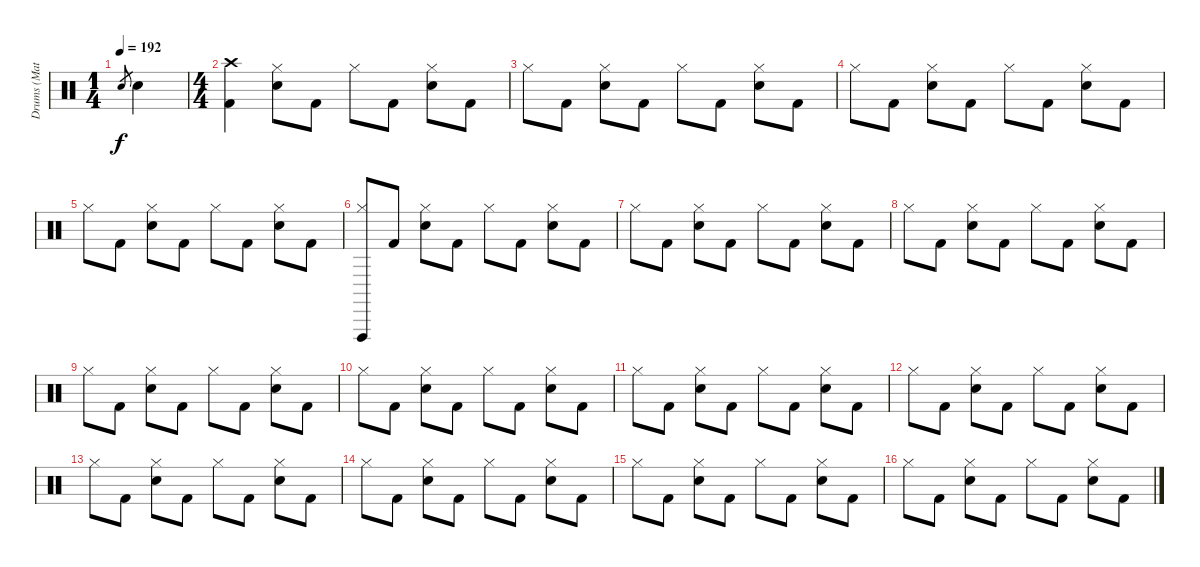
\track ("Drums (Matt)" "Drums (Mat") {instrument percussion}
\staff {score}
\articulation defaults
\ts (1 4)
\tempo 192
\clef neutral
\ks c "Snare (hit) 2".8{gr dy f} "Snare (hit) 2".4
|
\ts (4 4)
("Crash high (hit)" "Kick (hit) 2").4 ("Hi-Hat (closed)" "Snare (hit) 2").8 "Kick (hit) 2".8 "Hi-Hat (closed)".8 "Kick (hit) 2".8 ("Hi-Hat (closed)" "Snare (hit) 2").8 "Kick (hit) 2".8 |
"Hi-Hat (closed)".8 "Kick (hit) 2".8 ("Hi-Hat (closed)" "Snare (hit) 2").8 "Kick (hit) 2".8 "Hi-Hat (closed)".8 "Kick (hit) 2".8 ("Hi-Hat (closed)" "Snare (hit) 2").8 "Kick (hit) 2".8 |
"Hi-Hat (closed)".8 "Kick (hit) 2".8 ("Hi-Hat (closed)" "Snare (hit) 2").8 "Kick (hit) 2".8 "Hi-Hat (closed)".8 "Kick (hit) 2".8 ("Hi-Hat (closed)" "Snare (hit) 2").8 "Kick (hit) 2".8 |
"Hi-Hat (closed)".8 "Kick (hit) 2".8 ("Hi-Hat (closed)" "Snare (hit) 2").8 "Kick (hit) 2".8 "Hi-Hat (closed)".8 "Kick (hit) 2".8 ("Hi-Hat (closed)" "Snare (hit) 2").8 "Kick (hit) 2".8 |
("Vibraslap (hit)" "Hi-Hat (closed)").8 "Kick (hit) 2".8 ("Hi-Hat (closed)" "Snare (hit) 2").8 "Kick (hit) 2".8 "Hi-Hat (closed)".8 "Kick (hit) 2".8 ("Hi-Hat (closed)" "Snare (hit) 2").8 "Kick (hit) 2".8 |
"Hi-Hat (closed)".8 "Kick (hit) 2".8 ("Hi-Hat (closed)" "Snare (hit) 2").8 "Kick (hit) 2".8 "Hi-Hat (closed)".8 "Kick (hit) 2".8 ("Hi-Hat (closed)" "Snare (hit) 2").8 "Kick (hit) 2".8 |
"Hi-Hat (closed)".8 "Kick (hit) 2".8 ("Hi-Hat (closed)" "Snare (hit) 2").8 "Kick (hit) 2".8 "Hi-Hat (closed)".8 "Kick (hit) 2".8 ("Hi-Hat (closed)" "Snare (hit) 2").8 "Kick (hit) 2".8 |
"Hi-Hat (closed)".8 "Kick (hit) 2".8 ("Hi-Hat (closed)" "Snare (hit) 2").8 "Kick (hit) 2".8 "Hi-Hat (closed)".8 "Kick (hit) 2".8 ("Hi-Hat (closed)" "Snare (hit) 2").8 "Kick (hit) 2".8 |
"Hi-Hat (closed)".8 "Kick (hit) 2".8 ("Hi-Hat (closed)" "Snare (hit) 2").8 "Kick (hit) 2".8 "Hi-Hat (closed)".8 "Kick (hit) 2".8 ("Hi-Hat (closed)" "Snare (hit) 2").8 "Kick (hit) 2".8 |
"Hi-Hat (closed)".8 "Kick (hit) 2".8 ("Hi-Hat (closed)" "Snare (hit) 2").8 "Kick (hit) 2".8 "Hi-Hat (closed)".8 "Kick (hit) 2".8 ("Hi-Hat (closed)" "Snare (hit) 2").8 "Kick (hit) 2".8 |
"Hi-Hat (closed)".8 "Kick (hit) 2".8 ("Hi-Hat (closed)" "Snare (hit) 2").8 "Kick (hit) 2".8 "Hi-Hat (closed)".8 "Kick (hit) 2".8 ("Hi-Hat (closed)" "Snare (hit) 2").8 "Kick (hit) 2".8 |
"Hi-Hat (closed)".8 "Kick (hit) 2".8 ("Hi-Hat (closed)" "Snare (hit) 2").8 "Kick (hit) 2".8 "Hi-Hat (closed)".8 "Kick (hit) 2".8 ("Hi-Hat (closed)" "Snare (hit) 2").8 "Kick (hit) 2".8 |
"Hi-Hat (closed)".8 "Kick (hit) 2".8 ("Hi-Hat (closed)" "Snare (hit) 2").8 "Kick (hit) 2".8 "Hi-Hat (closed)".8 "Kick (hit) 2".8 ("Hi-Hat (closed)" "Snare (hit) 2").8 "Kick (hit) 2".8 |
"Hi-Hat (closed)".8 "Kick (hit) 2".8 ("Hi-Hat (closed)" "Snare (hit) 2").8 "Kick (hit) 2".8 "Hi-Hat (closed)".8 "Kick (hit) 2".8 ("Hi-Hat (closed)" "Snare (hit) 2").8 "Kick (hit) 2".8 |
"Hi-Hat (closed)".8 "Kick (hit) 2".8 ("Hi-Hat (closed)" "Snare (hit) 2").8 "Kick (hit) 2".8 "Hi-Hat (closed)".8 "Kick (hit) 2".8 ("Hi-Hat (closed)" "Snare (hit) 2").8 "Kick (hit) 2".8
